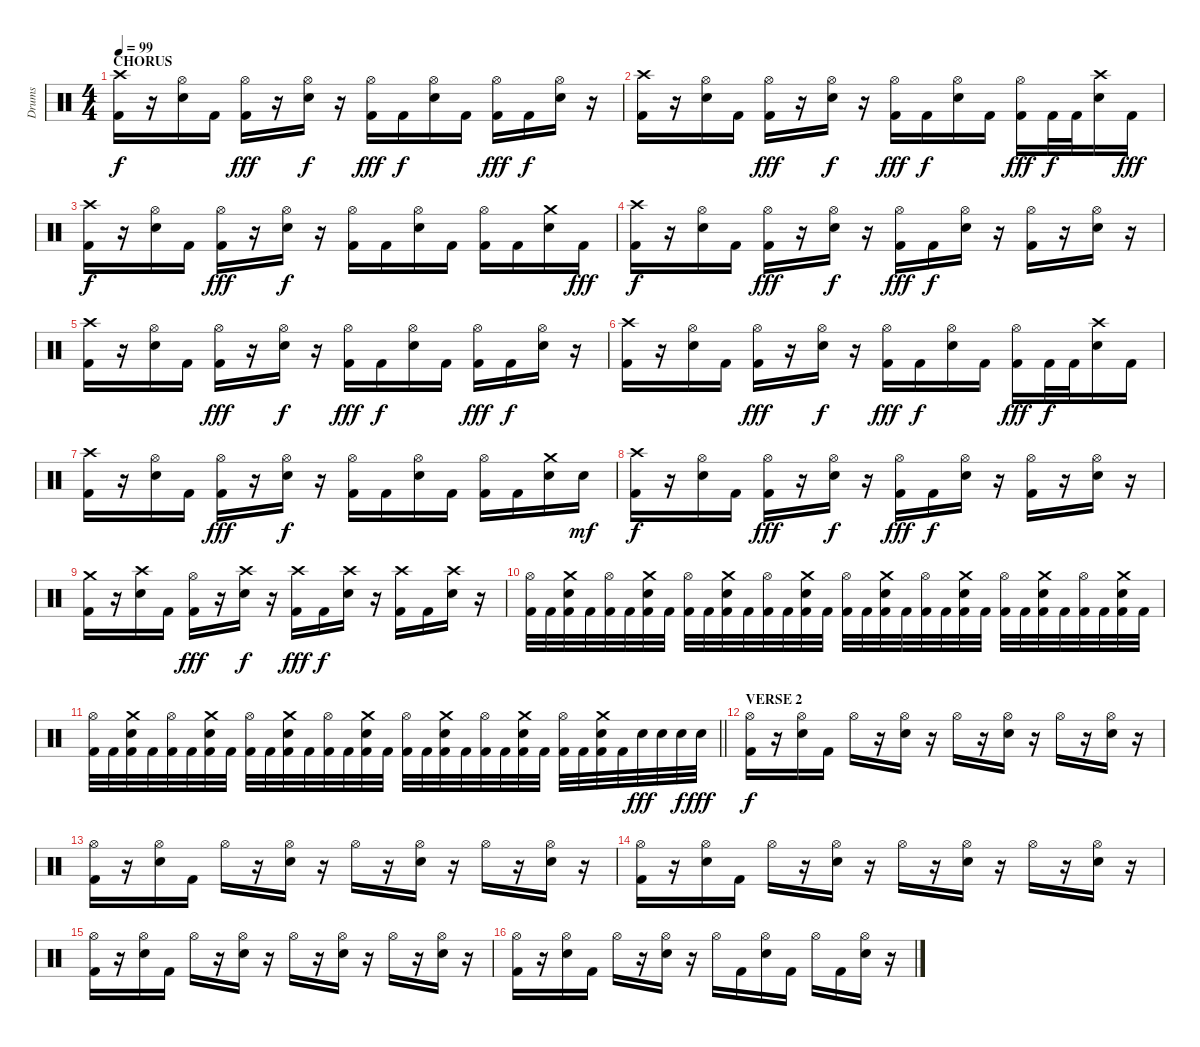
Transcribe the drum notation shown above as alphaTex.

\track ("Drums" "Drums") {instrument percussion}
\staff {score}
\articulation defaults
\ts (4 4)
\section ("" "CHORUS")
\tempo 99
\clef neutral
\ks c
("Crash high (hit)" "Kick (hit) 2").16{dy f} r.16 ("Hi-Hat (open)" "Electric Snare (hit)").16 "Kick (hit) 2".16 ("Hi-Hat (open)" "Kick (hit) 2").16{dy fff} r.16 ("Hi-Hat (open)" "Electric Snare (hit)").16{dy f} r.16 ("Hi-Hat (open)" "Kick (hit) 2").16{dy fff} "Kick (hit) 2".16{dy f} ("Hi-Hat (open)" "Electric Snare (hit)").16 "Kick (hit) 2".16 ("Hi-Hat (open)" "Kick (hit) 2").16{dy fff} "Kick (hit) 2".16{dy f} ("Hi-Hat (open)" "Electric Snare (hit)").16 r.16 |
("Crash high (hit)" "Kick (hit) 2").16 r.16 ("Hi-Hat (open)" "Electric Snare (hit)").16 "Kick (hit) 2".16 ("Hi-Hat (open)" "Kick (hit) 2").16{dy fff} r.16 ("Hi-Hat (open)" "Electric Snare (hit)").16{dy f} r.16 ("Hi-Hat (open)" "Kick (hit) 2").16{dy fff} "Kick (hit) 2".16{dy f} ("Hi-Hat (open)" "Electric Snare (hit)").16 "Kick (hit) 2".16 ("Hi-Hat (open)" "Kick (hit) 2").16{dy fff} "Kick (hit) 2".32{dy f} "Kick (hit) 2".32 ("Crash high (hit)" "Electric Snare (hit)").16 "Kick (hit) 2".16{dy fff} |
("Crash high (hit)" "Kick (hit) 2").16{dy f} r.16 ("Hi-Hat (open)" "Electric Snare (hit)").16 "Kick (hit) 2".16 ("Hi-Hat (open)" "Kick (hit) 2").16{dy fff} r.16 ("Hi-Hat (open)" "Electric Snare (hit)").16{dy f} r.16 ("Hi-Hat (open)" "Kick (hit) 2").16 "Kick (hit) 2".16 ("Hi-Hat (open)" "Electric Snare (hit)").16 "Kick (hit) 2".16 ("Hi-Hat (open)" "Kick (hit) 2").16 "Kick (hit) 2".16 ("Crash medium (hit)" "Electric Snare (hit)").16 "Kick (hit) 2".16{dy fff} |
("Crash high (hit)" "Kick (hit) 2").16{dy f} r.16 ("Hi-Hat (open)" "Electric Snare (hit)").16 "Kick (hit) 2".16 ("Hi-Hat (open)" "Kick (hit) 2").16{dy fff} r.16 ("Hi-Hat (open)" "Electric Snare (hit)").16{dy f} r.16 ("Hi-Hat (open)" "Kick (hit) 2").16{dy fff} "Kick (hit) 2".16{dy f} ("Hi-Hat (open)" "Electric Snare (hit)").16 r.16 ("Hi-Hat (open)" "Kick (hit) 2").16 r.16 ("Hi-Hat (open)" "Electric Snare (hit)").16 r.16 |
("Crash high (hit)" "Kick (hit) 2").16 r.16 ("Hi-Hat (open)" "Electric Snare (hit)").16 "Kick (hit) 2".16 ("Hi-Hat (open)" "Kick (hit) 2").16{dy fff} r.16 ("Hi-Hat (open)" "Electric Snare (hit)").16{dy f} r.16 ("Hi-Hat (open)" "Kick (hit) 2").16{dy fff} "Kick (hit) 2".16{dy f} ("Hi-Hat (open)" "Electric Snare (hit)").16 "Kick (hit) 2".16 ("Hi-Hat (open)" "Kick (hit) 2").16{dy fff} "Kick (hit) 2".16{dy f} ("Hi-Hat (open)" "Electric Snare (hit)").16 r.16 |
("Crash high (hit)" "Kick (hit) 2").16 r.16 ("Hi-Hat (open)" "Electric Snare (hit)").16 "Kick (hit) 2".16 ("Hi-Hat (open)" "Kick (hit) 2").16{dy fff} r.16 ("Hi-Hat (open)" "Electric Snare (hit)").16{dy f} r.16 ("Hi-Hat (open)" "Kick (hit) 2").16{dy fff} "Kick (hit) 2".16{dy f} ("Hi-Hat (open)" "Electric Snare (hit)").16 "Kick (hit) 2".16 ("Hi-Hat (open)" "Kick (hit) 2").16{dy fff} "Kick (hit) 2".32{dy f} "Kick (hit) 2".32 ("Crash high (hit)" "Electric Snare (hit)").16 "Kick (hit) 2".16 |
("Crash high (hit)" "Kick (hit) 2").16 r.16 ("Hi-Hat (open)" "Electric Snare (hit)").16 "Kick (hit) 2".16 ("Hi-Hat (open)" "Kick (hit) 2").16{dy fff} r.16 ("Hi-Hat (open)" "Electric Snare (hit)").16{dy f} r.16 ("Hi-Hat (open)" "Kick (hit) 2").16 "Kick (hit) 2".16 ("Hi-Hat (open)" "Electric Snare (hit)").16 "Kick (hit) 2".16 ("Hi-Hat (open)" "Kick (hit) 2").16 "Kick (hit) 2".16 ("Crash medium (hit)" "Electric Snare (hit)").16 "Electric Snare (hit)".16{dy mf} |
("Crash high (hit)" "Kick (hit) 2").16{dy f} r.16 ("Hi-Hat (open)" "Electric Snare (hit)").16 "Kick (hit) 2".16 ("Hi-Hat (open)" "Kick (hit) 2").16{dy fff} r.16 ("Hi-Hat (open)" "Electric Snare (hit)").16{dy f} r.16 ("Hi-Hat (open)" "Kick (hit) 2").16{dy fff} "Kick (hit) 2".16{dy f} ("Hi-Hat (open)" "Electric Snare (hit)").16 r.16 ("Hi-Hat (open)" "Kick (hit) 2").16 r.16 ("Hi-Hat (open)" "Electric Snare (hit)").16 r.16 |
("Crash medium (hit)" "Kick (hit) 2").16 r.16 ("Crash high (hit)" "Electric Snare (hit)").16 "Kick (hit) 2".16 ("Hi-Hat (open)" "Kick (hit) 2").16{dy fff} r.16 ("Crash high (hit)" "Electric Snare (hit)").16{dy f} r.16 ("Crash high (hit)" "Kick (hit) 2").16{dy fff} "Kick (hit) 2".16{dy f} ("Crash high (hit)" "Electric Snare (hit)").16 r.16 ("Crash high (hit)" "Kick (hit) 2").16 "Kick (hit) 2".16 ("Crash high (hit)" "Electric Snare (hit)").16 r.16 |
("Hi-Hat (open)" "Kick (hit) 2").32 "Kick (hit) 2".32 ("Crash medium (hit)" "Electric Snare (hit)" "Kick (hit) 2").32 "Kick (hit) 2".32 ("Hi-Hat (open)" "Kick (hit) 2").32 "Kick (hit) 2".32 ("Crash medium (hit)" "Electric Snare (hit)" "Kick (hit) 2").32 "Kick (hit) 2".32 ("Hi-Hat (open)" "Kick (hit) 2").32 "Kick (hit) 2".32 ("Crash medium (hit)" "Electric Snare (hit)" "Kick (hit) 2").32 "Kick (hit) 2".32 ("Hi-Hat (open)" "Kick (hit) 2").32 "Kick (hit) 2".32 ("Crash medium (hit)" "Electric Snare (hit)" "Kick (hit) 2").32 "Kick (hit) 2".32 ("Hi-Hat (open)" "Kick (hit) 2").32 "Kick (hit) 2".32 ("Crash medium (hit)" "Electric Snare (hit)" "Kick (hit) 2").32 "Kick (hit) 2".32 ("Hi-Hat (open)" "Kick (hit) 2").32 "Kick (hit) 2".32 ("Crash medium (hit)" "Electric Snare (hit)" "Kick (hit) 2").32 "Kick (hit) 2".32 ("Hi-Hat (open)" "Kick (hit) 2").32 "Kick (hit) 2".32 ("Crash medium (hit)" "Electric Snare (hit)" "Kick (hit) 2").32 "Kick (hit) 2".32 ("Hi-Hat (open)" "Kick (hit) 2").32 "Kick (hit) 2".32 ("Crash medium (hit)" "Electric Snare (hit)" "Kick (hit) 2").32 "Kick (hit) 2".32 |
\barLineRight lightlight
("Hi-Hat (open)" "Kick (hit) 2").32 "Kick (hit) 2".32 ("Crash medium (hit)" "Electric Snare (hit)" "Kick (hit) 2").32 "Kick (hit) 2".32 ("Hi-Hat (open)" "Kick (hit) 2").32 "Kick (hit) 2".32 ("Crash medium (hit)" "Electric Snare (hit)" "Kick (hit) 2").32 "Kick (hit) 2".32 ("Hi-Hat (open)" "Kick (hit) 2").32 "Kick (hit) 2".32 ("Crash medium (hit)" "Electric Snare (hit)" "Kick (hit) 2").32 "Kick (hit) 2".32 ("Hi-Hat (open)" "Kick (hit) 2").32 "Kick (hit) 2".32 ("Crash medium (hit)" "Electric Snare (hit)" "Kick (hit) 2").32 "Kick (hit) 2".32 ("Hi-Hat (open)" "Kick (hit) 2").32 "Kick (hit) 2".32 ("Crash medium (hit)" "Electric Snare (hit)" "Kick (hit) 2").32 "Kick (hit) 2".32 ("Hi-Hat (open)" "Kick (hit) 2").32 "Kick (hit) 2".32 ("Crash medium (hit)" "Electric Snare (hit)" "Kick (hit) 2").32 "Kick (hit) 2".32 ("Hi-Hat (open)" "Kick (hit) 2").32 "Kick (hit) 2".32 ("Crash medium (hit)" "Electric Snare (hit)" "Kick (hit) 2").32 "Kick (hit) 2".32 "Electric Snare (hit)".32{dy fff} "Electric Snare (hit)".32 "Electric Snare (hit)".32{dy f} "Electric Snare (hit)".32{dy fff} |
\section ("" "VERSE 2")
("Hi-Hat (open)" "Kick (hit) 2").16{dy f} r.16 ("Hi-Hat (open)" "Electric Snare (hit)").16 "Kick (hit) 2".16 "Hi-Hat (open)".16 r.16 ("Hi-Hat (open)" "Electric Snare (hit)").16 r.16 "Hi-Hat (open)".16 r.16 ("Hi-Hat (open)" "Electric Snare (hit)").16 r.16 "Hi-Hat (open)".16 r.16 ("Hi-Hat (open)" "Electric Snare (hit)").16 r.16 |
("Hi-Hat (open)" "Kick (hit) 2").16 r.16 ("Hi-Hat (open)" "Electric Snare (hit)").16 "Kick (hit) 2".16 "Hi-Hat (open)".16 r.16 ("Hi-Hat (open)" "Electric Snare (hit)").16 r.16 "Hi-Hat (open)".16 r.16 ("Hi-Hat (open)" "Electric Snare (hit)").16 r.16 "Hi-Hat (open)".16 r.16 ("Hi-Hat (open)" "Electric Snare (hit)").16 r.16 |
("Hi-Hat (open)" "Kick (hit) 2").16 r.16 ("Hi-Hat (open)" "Electric Snare (hit)").16 "Kick (hit) 2".16 "Hi-Hat (open)".16 r.16 ("Hi-Hat (open)" "Electric Snare (hit)").16 r.16 "Hi-Hat (open)".16 r.16 ("Hi-Hat (open)" "Electric Snare (hit)").16 r.16 "Hi-Hat (open)".16 r.16 ("Hi-Hat (open)" "Electric Snare (hit)").16 r.16 |
("Hi-Hat (open)" "Kick (hit) 2").16 r.16 ("Hi-Hat (open)" "Electric Snare (hit)").16 "Kick (hit) 2".16 "Hi-Hat (open)".16 r.16 ("Hi-Hat (open)" "Electric Snare (hit)").16 r.16 "Hi-Hat (open)".16 r.16 ("Hi-Hat (open)" "Electric Snare (hit)").16 r.16 "Hi-Hat (open)".16 r.16 ("Hi-Hat (open)" "Electric Snare (hit)").16 r.16 |
("Hi-Hat (open)" "Kick (hit) 2").16 r.16 ("Hi-Hat (open)" "Electric Snare (hit)").16 "Kick (hit) 2".16 "Hi-Hat (open)".16 r.16 ("Hi-Hat (open)" "Electric Snare (hit)").16 r.16 "Hi-Hat (open)".16 "Kick (hit) 2".16 ("Hi-Hat (open)" "Electric Snare (hit)").16 "Kick (hit) 2".16 "Hi-Hat (open)".16 "Kick (hit) 2".16 ("Hi-Hat (open)" "Electric Snare (hit)").16 r.16
